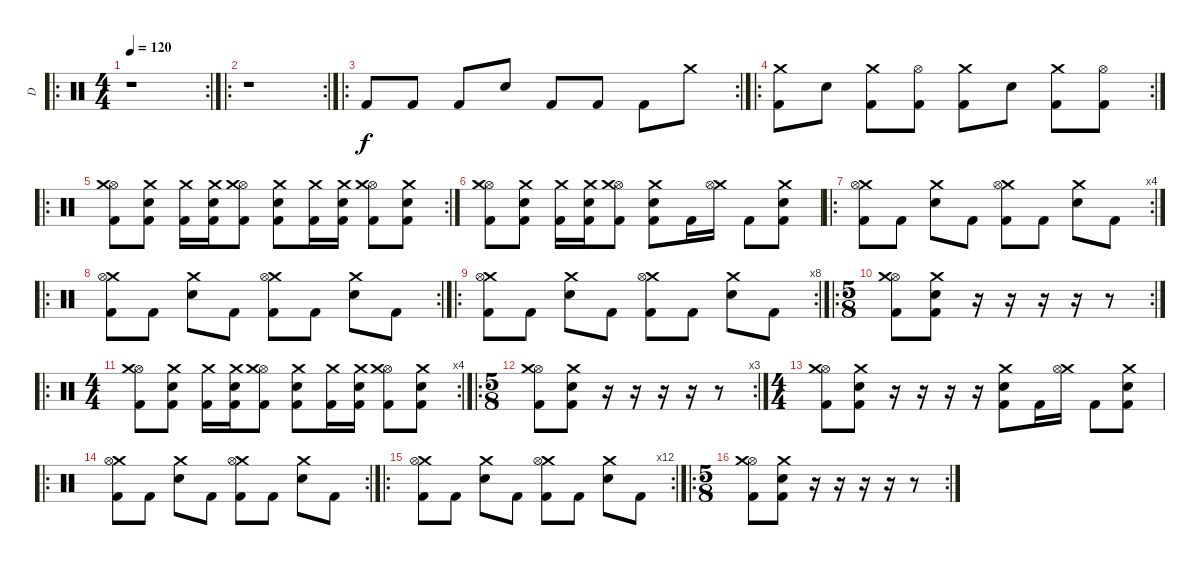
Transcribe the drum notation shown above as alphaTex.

\track ("D" "D") {instrument percussion}
\staff {score}
\articulation defaults
\ro
\rc 2
\ts (4 4)
\tempo 120
\tempo 133
\tempo 120
\clef neutral
\ks c
r.1{dy f} |
\ro
\rc 2
r.1 |
\ro
\rc 2 "Kick (hit) 2".8 "Kick (hit) 2".8 "Kick (hit) 2".8 "Electric Snare (hit)".8 "Kick (hit) 2".8 "Kick (hit) 2".8 "Kick (hit) 2".8 "Crash medium (hit)".8
|
\ro
\rc 2
("Crash medium (hit)" "Kick (hit) 2").8 "Electric Snare (hit)".8 ("Crash medium (hit)" "Kick (hit) 2").8 ("Hi-Hat (open)" "Kick (hit) 2").8 ("Crash medium (hit)" "Kick (hit) 2").8 "Electric Snare (hit)".8 ("Crash medium (hit)" "Kick (hit) 2").8 ("Hi-Hat (open)" "Kick (hit) 2").8 |
\ro
\rc 2
("Hi-Hat (open)" "Crash medium (hit)" "Kick (hit) 2").8 ("Electric Snare (hit)" "Crash medium (hit)" "Kick (hit) 2").8 ("Crash medium (hit)" "Kick (hit) 2").16 ("Electric Snare (hit)" "Crash medium (hit)" "Kick (hit) 2").16 ("Hi-Hat (open)" "Crash medium (hit)" "Kick (hit) 2").8 ("Electric Snare (hit)" "Crash medium (hit)" "Kick (hit) 2").8 ("Crash medium (hit)" "Kick (hit) 2").16 ("Electric Snare (hit)" "Crash medium (hit)" "Kick (hit) 2").16 ("Hi-Hat (open)" "Crash medium (hit)" "Kick (hit) 2").8 ("Electric Snare (hit)" "Crash medium (hit)" "Kick (hit) 2").8 |
("Hi-Hat (open)" "Crash medium (hit)" "Kick (hit) 2").8 ("Electric Snare (hit)" "Crash medium (hit)" "Kick (hit) 2").8 ("Crash medium (hit)" "Kick (hit) 2").16 ("Electric Snare (hit)" "Crash medium (hit)" "Kick (hit) 2").16 ("Hi-Hat (open)" "Crash medium (hit)" "Kick (hit) 2").8 ("Electric Snare (hit)" "Crash medium (hit)" "Kick (hit) 2").8 "Kick (hit) 2".16 ("Crash medium (hit)" "Hi-Hat (open)").16 "Kick (hit) 2".8 ("Crash medium (hit)" "Electric Snare (hit)" "Kick (hit) 2").8 |
\ro
\rc 4
("Crash medium (hit)" "Hi-Hat (open)" "Kick (hit) 2").8 "Kick (hit) 2".8 ("Crash medium (hit)" "Electric Snare (hit)").8 "Kick (hit) 2".8 ("Crash medium (hit)" "Hi-Hat (open)" "Kick (hit) 2").8 "Kick (hit) 2".8 ("Crash medium (hit)" "Electric Snare (hit)").8 "Kick (hit) 2".8 |
\ro
\rc 2
("Crash medium (hit)" "Hi-Hat (open)" "Kick (hit) 2").8 "Kick (hit) 2".8 ("Crash medium (hit)" "Electric Snare (hit)").8 "Kick (hit) 2".8 ("Crash medium (hit)" "Hi-Hat (open)" "Kick (hit) 2").8 "Kick (hit) 2".8 ("Crash medium (hit)" "Electric Snare (hit)").8 "Kick (hit) 2".8 |
\ro
\rc 8
("Crash medium (hit)" "Hi-Hat (open)" "Kick (hit) 2").8 "Kick (hit) 2".8 ("Crash medium (hit)" "Electric Snare (hit)").8 "Kick (hit) 2".8 ("Crash medium (hit)" "Hi-Hat (open)" "Kick (hit) 2").8 "Kick (hit) 2".8 ("Crash medium (hit)" "Electric Snare (hit)").8 "Kick (hit) 2".8 |
\ro
\rc 2
\ts (5 8)
("Hi-Hat (open)" "Crash medium (hit)" "Kick (hit) 2").8 ("Electric Snare (hit)" "Crash medium (hit)" "Kick (hit) 2").8 r.16 r.16 r.16 r.16 r.8 |
\ro
\rc 4
\ts (4 4)
("Hi-Hat (open)" "Crash medium (hit)" "Kick (hit) 2").8 ("Electric Snare (hit)" "Crash medium (hit)" "Kick (hit) 2").8 ("Crash medium (hit)" "Kick (hit) 2").16 ("Electric Snare (hit)" "Crash medium (hit)" "Kick (hit) 2").16 ("Hi-Hat (open)" "Crash medium (hit)" "Kick (hit) 2").8 ("Electric Snare (hit)" "Crash medium (hit)" "Kick (hit) 2").8 ("Crash medium (hit)" "Kick (hit) 2").16 ("Electric Snare (hit)" "Crash medium (hit)" "Kick (hit) 2").16 ("Hi-Hat (open)" "Crash medium (hit)" "Kick (hit) 2").8 ("Electric Snare (hit)" "Crash medium (hit)" "Kick (hit) 2").8 |
\ro
\rc 3
\ts (5 8)
("Hi-Hat (open)" "Crash medium (hit)" "Kick (hit) 2").8 ("Electric Snare (hit)" "Crash medium (hit)" "Kick (hit) 2").8 r.16 r.16 r.16 r.16 r.8 |
\ts (4 4)
("Hi-Hat (open)" "Crash medium (hit)" "Kick (hit) 2").8 ("Electric Snare (hit)" "Crash medium (hit)" "Kick (hit) 2").8 r.16 r.16 r.16 r.16 ("Electric Snare (hit)" "Crash medium (hit)" "Kick (hit) 2").8 "Kick (hit) 2".16 ("Crash medium (hit)" "Hi-Hat (open)").16 "Kick (hit) 2".8 ("Crash medium (hit)" "Electric Snare (hit)" "Kick (hit) 2").8 |
\ro
\rc 2
("Crash medium (hit)" "Hi-Hat (open)" "Kick (hit) 2").8 "Kick (hit) 2".8 ("Crash medium (hit)" "Electric Snare (hit)").8 "Kick (hit) 2".8 ("Crash medium (hit)" "Hi-Hat (open)" "Kick (hit) 2").8 "Kick (hit) 2".8 ("Crash medium (hit)" "Electric Snare (hit)").8 "Kick (hit) 2".8 |
\ro
\rc 12
("Crash medium (hit)" "Hi-Hat (open)" "Kick (hit) 2").8 "Kick (hit) 2".8 ("Crash medium (hit)" "Electric Snare (hit)").8 "Kick (hit) 2".8 ("Crash medium (hit)" "Hi-Hat (open)" "Kick (hit) 2").8 "Kick (hit) 2".8 ("Crash medium (hit)" "Electric Snare (hit)").8 "Kick (hit) 2".8 |
\ro
\rc 2
\ts (5 8)
("Hi-Hat (open)" "Crash medium (hit)" "Kick (hit) 2").8 ("Electric Snare (hit)" "Crash medium (hit)" "Kick (hit) 2").8 r.16 r.16 r.16 r.16 r.8
